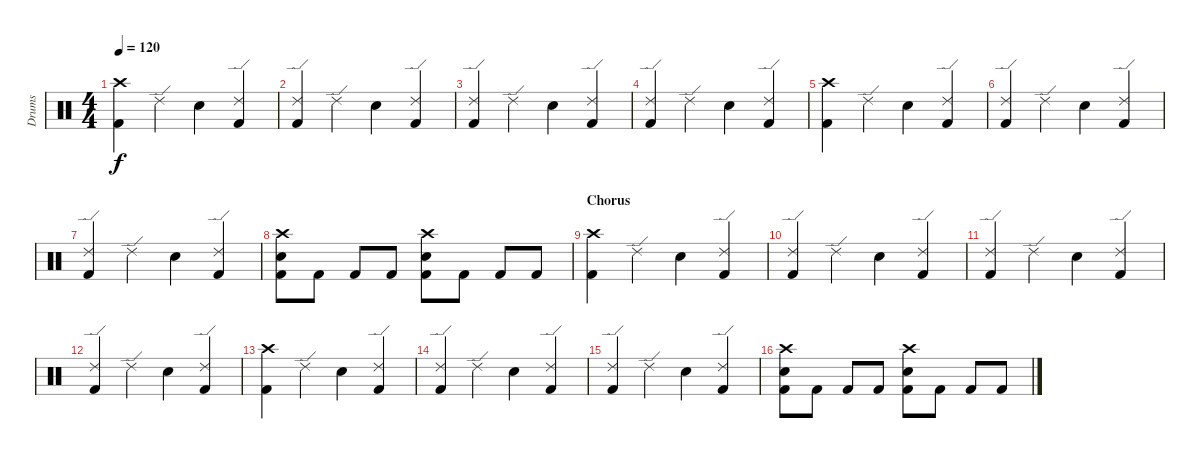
\track ("Drums" "Drums") {instrument percussion}
\staff {score}
\articulation defaults
\ts (4 4)
\tempo 120
\clef neutral
\ks c
("Crash high (hit)" "Kick (hit) 2").4{dy f} "Ride (edge) 2".4 "Snare (hit) 2".4 ("Ride (edge) 2" "Kick (hit) 2").4 |
("Ride (edge) 2" "Kick (hit) 2").4 "Ride (edge) 2".4 "Snare (hit) 2".4 ("Ride (edge) 2" "Kick (hit) 2").4 |
("Ride (edge) 2" "Kick (hit) 2").4 "Ride (edge) 2".4 "Snare (hit) 2".4 ("Ride (edge) 2" "Kick (hit) 2").4 |
("Ride (edge) 2" "Kick (hit) 2").4 "Ride (edge) 2".4 "Snare (hit) 2".4 ("Ride (edge) 2" "Kick (hit) 2").4 |
("Crash high (hit)" "Kick (hit) 2").4 "Ride (edge) 2".4 "Snare (hit) 2".4 ("Ride (edge) 2" "Kick (hit) 2").4 |
("Ride (edge) 2" "Kick (hit) 2").4 "Ride (edge) 2".4 "Snare (hit) 2".4 ("Ride (edge) 2" "Kick (hit) 2").4 |
("Ride (edge) 2" "Kick (hit) 2").4 "Ride (edge) 2".4 "Snare (hit) 2".4 ("Ride (edge) 2" "Kick (hit) 2").4 |
("Crash high (hit)" "Snare (hit) 2" "Kick (hit) 2").8 "Kick (hit) 2".8 "Kick (hit) 2".8 "Kick (hit) 2".8 ("Crash high (hit)" "Snare (hit) 2" "Kick (hit) 2").8 "Kick (hit) 2".8 "Kick (hit) 2".8 "Kick (hit) 2".8 |
\section ("" "Chorus")
("Crash high (hit)" "Kick (hit) 2").4 "Ride (edge) 2".4 "Snare (hit) 2".4 ("Ride (edge) 2" "Kick (hit) 2").4 |
("Ride (edge) 2" "Kick (hit) 2").4 "Ride (edge) 2".4 "Snare (hit) 2".4 ("Ride (edge) 2" "Kick (hit) 2").4 |
("Ride (edge) 2" "Kick (hit) 2").4 "Ride (edge) 2".4 "Snare (hit) 2".4 ("Ride (edge) 2" "Kick (hit) 2").4 |
("Ride (edge) 2" "Kick (hit) 2").4 "Ride (edge) 2".4 "Snare (hit) 2".4 ("Ride (edge) 2" "Kick (hit) 2").4 |
("Crash high (hit)" "Kick (hit) 2").4 "Ride (edge) 2".4 "Snare (hit) 2".4 ("Ride (edge) 2" "Kick (hit) 2").4 |
("Ride (edge) 2" "Kick (hit) 2").4 "Ride (edge) 2".4 "Snare (hit) 2".4 ("Ride (edge) 2" "Kick (hit) 2").4 |
("Ride (edge) 2" "Kick (hit) 2").4 "Ride (edge) 2".4 "Snare (hit) 2".4 ("Ride (edge) 2" "Kick (hit) 2").4 |
("Crash high (hit)" "Snare (hit) 2" "Kick (hit) 2").8 "Kick (hit) 2".8 "Kick (hit) 2".8 "Kick (hit) 2".8 ("Crash high (hit)" "Snare (hit) 2" "Kick (hit) 2").8 "Kick (hit) 2".8 "Kick (hit) 2".8 "Kick (hit) 2".8
